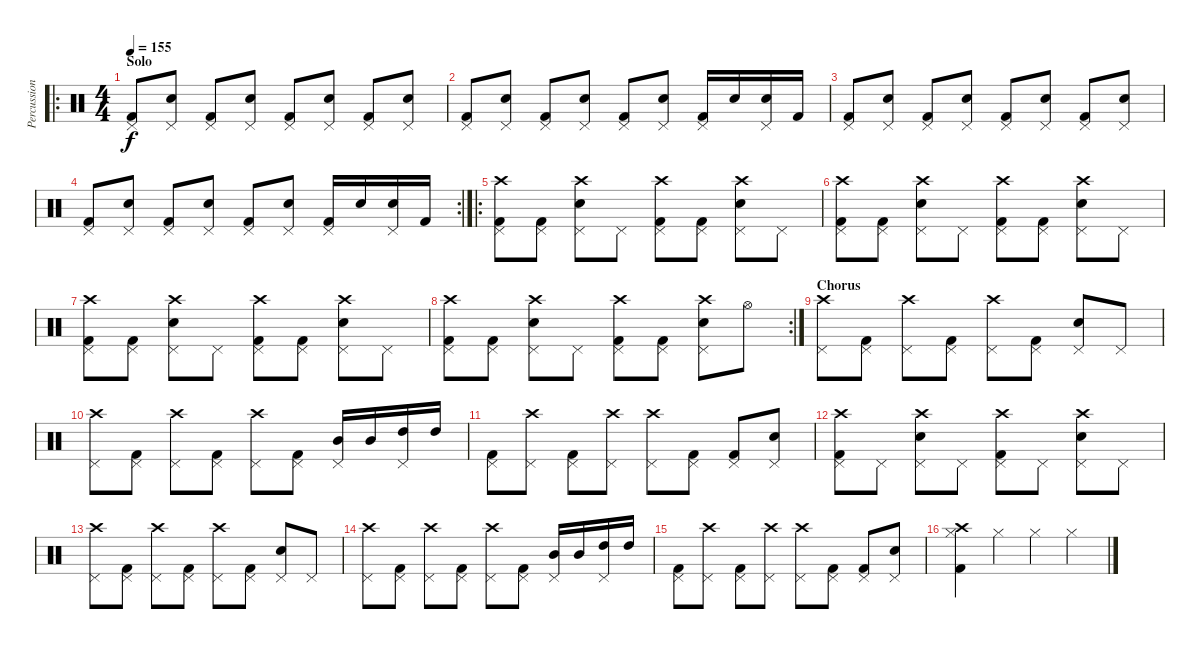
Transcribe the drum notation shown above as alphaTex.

\track ("Percussion" "Percussion") {instrument percussion}
\staff {score}
\articulation defaults
\ro
\ts (4 4)
\section ("" "Solo")
\tempo 155
\clef neutral
\ks c
("Pedal Hi-Hat (hit)" "Kick (hit) 2").8{dy f} ("Pedal Hi-Hat (hit)" "Electric Snare (hit)").8 ("Pedal Hi-Hat (hit)" "Kick (hit) 2").8 ("Pedal Hi-Hat (hit)" "Electric Snare (hit)").8 ("Pedal Hi-Hat (hit)" "Kick (hit) 2").8 ("Pedal Hi-Hat (hit)" "Electric Snare (hit)").8 ("Pedal Hi-Hat (hit)" "Kick (hit) 2").8 ("Pedal Hi-Hat (hit)" "Electric Snare (hit)").8 |
("Pedal Hi-Hat (hit)" "Kick (hit) 2").8 ("Pedal Hi-Hat (hit)" "Electric Snare (hit)").8 ("Pedal Hi-Hat (hit)" "Kick (hit) 2").8 ("Pedal Hi-Hat (hit)" "Electric Snare (hit)").8 ("Pedal Hi-Hat (hit)" "Kick (hit) 2").8 ("Pedal Hi-Hat (hit)" "Electric Snare (hit)").8 ("Pedal Hi-Hat (hit)" "Kick (hit) 2").16 "Electric Snare (hit)".16 ("Pedal Hi-Hat (hit)" "Electric Snare (hit)").16 "Kick (hit) 2".16 |
("Pedal Hi-Hat (hit)" "Kick (hit) 2").8 ("Pedal Hi-Hat (hit)" "Electric Snare (hit)").8 ("Pedal Hi-Hat (hit)" "Kick (hit) 2").8 ("Pedal Hi-Hat (hit)" "Electric Snare (hit)").8 ("Pedal Hi-Hat (hit)" "Kick (hit) 2").8 ("Pedal Hi-Hat (hit)" "Electric Snare (hit)").8 ("Pedal Hi-Hat (hit)" "Kick (hit) 2").8 ("Pedal Hi-Hat (hit)" "Electric Snare (hit)").8 |
\rc 2
("Pedal Hi-Hat (hit)" "Kick (hit) 2").8 ("Pedal Hi-Hat (hit)" "Electric Snare (hit)").8 ("Pedal Hi-Hat (hit)" "Kick (hit) 2").8 ("Pedal Hi-Hat (hit)" "Electric Snare (hit)").8 ("Pedal Hi-Hat (hit)" "Kick (hit) 2").8 ("Pedal Hi-Hat (hit)" "Electric Snare (hit)").8 ("Pedal Hi-Hat (hit)" "Kick (hit) 2").16 "Electric Snare (hit)".16 ("Pedal Hi-Hat (hit)" "Electric Snare (hit)").16 "Kick (hit) 2".16 |
\ro
("Pedal Hi-Hat (hit)" "Kick (hit) 2" "Crash high (hit)").8 ("Pedal Hi-Hat (hit)" "Kick (hit) 2").8 ("Pedal Hi-Hat (hit)" "Electric Snare (hit)" "Crash high (hit)").8 "Pedal Hi-Hat (hit)".8 ("Pedal Hi-Hat (hit)" "Kick (hit) 2" "Crash high (hit)").8 ("Pedal Hi-Hat (hit)" "Kick (hit) 2").8 ("Pedal Hi-Hat (hit)" "Electric Snare (hit)" "Crash high (hit)").8 "Pedal Hi-Hat (hit)".8 |
("Pedal Hi-Hat (hit)" "Kick (hit) 2" "Crash high (hit)").8 ("Pedal Hi-Hat (hit)" "Kick (hit) 2").8 ("Pedal Hi-Hat (hit)" "Electric Snare (hit)" "Crash high (hit)").8 "Pedal Hi-Hat (hit)".8 ("Pedal Hi-Hat (hit)" "Kick (hit) 2" "Crash high (hit)").8 ("Pedal Hi-Hat (hit)" "Kick (hit) 2").8 ("Pedal Hi-Hat (hit)" "Electric Snare (hit)" "Crash high (hit)").8 "Pedal Hi-Hat (hit)".8 |
("Pedal Hi-Hat (hit)" "Kick (hit) 2" "Crash high (hit)").8 ("Pedal Hi-Hat (hit)" "Kick (hit) 2").8 ("Pedal Hi-Hat (hit)" "Electric Snare (hit)" "Crash high (hit)").8 "Pedal Hi-Hat (hit)".8 ("Pedal Hi-Hat (hit)" "Kick (hit) 2" "Crash high (hit)").8 ("Pedal Hi-Hat (hit)" "Kick (hit) 2").8 ("Pedal Hi-Hat (hit)" "Electric Snare (hit)" "Crash high (hit)").8 "Pedal Hi-Hat (hit)".8 |
\rc 2
("Pedal Hi-Hat (hit)" "Kick (hit) 2" "Crash high (hit)").8 ("Pedal Hi-Hat (hit)" "Kick (hit) 2").8 ("Pedal Hi-Hat (hit)" "Electric Snare (hit)" "Crash high (hit)").8 "Pedal Hi-Hat (hit)".8 ("Pedal Hi-Hat (hit)" "Kick (hit) 2" "Crash high (hit)").8 ("Pedal Hi-Hat (hit)" "Kick (hit) 2").8 ("Pedal Hi-Hat (hit)" "Electric Snare (hit)" "Crash high (hit)").8 "Hi-Hat (open)".8 |
\section ("" "Chorus")
("Pedal Hi-Hat (hit)" "Crash high (hit)").8 ("Pedal Hi-Hat (hit)" "Kick (hit) 2").8 ("Pedal Hi-Hat (hit)" "Crash high (hit)").8 ("Pedal Hi-Hat (hit)" "Kick (hit) 2").8 ("Pedal Hi-Hat (hit)" "Crash high (hit)").8 ("Pedal Hi-Hat (hit)" "Kick (hit) 2").8 ("Pedal Hi-Hat (hit)" "Electric Snare (hit)").8 "Pedal Hi-Hat (hit)".8 |
("Pedal Hi-Hat (hit)" "Crash high (hit)").8 ("Pedal Hi-Hat (hit)" "Kick (hit) 2").8 ("Pedal Hi-Hat (hit)" "Crash high (hit)").8 ("Pedal Hi-Hat (hit)" "Kick (hit) 2").8 ("Pedal Hi-Hat (hit)" "Crash high (hit)").8 ("Pedal Hi-Hat (hit)" "Kick (hit) 2").8 ("Pedal Hi-Hat (hit)" "Mid Tom (hit)").16 "Mid Tom (hit)".16 ("Pedal Hi-Hat (hit)" "High Tom (hit)").16 "High Tom (hit)".16 |
("Pedal Hi-Hat (hit)" "Kick (hit) 2").8 ("Pedal Hi-Hat (hit)" "Crash high (hit)").8 ("Pedal Hi-Hat (hit)" "Kick (hit) 2").8 ("Pedal Hi-Hat (hit)" "Crash high (hit)").8 ("Pedal Hi-Hat (hit)" "Crash high (hit)").8 ("Pedal Hi-Hat (hit)" "Kick (hit) 2").8 ("Pedal Hi-Hat (hit)" "Kick (hit) 2").8 ("Pedal Hi-Hat (hit)" "Electric Snare (hit)").8 |
("Pedal Hi-Hat (hit)" "Kick (hit) 2" "Crash high (hit)").8 "Pedal Hi-Hat (hit)".8 ("Pedal Hi-Hat (hit)" "Electric Snare (hit)" "Crash high (hit)").8 "Pedal Hi-Hat (hit)".8 ("Pedal Hi-Hat (hit)" "Kick (hit) 2" "Crash high (hit)").8 "Pedal Hi-Hat (hit)".8 ("Pedal Hi-Hat (hit)" "Electric Snare (hit)" "Crash high (hit)").8 "Pedal Hi-Hat (hit)".8 |
("Pedal Hi-Hat (hit)" "Crash high (hit)").8 ("Pedal Hi-Hat (hit)" "Kick (hit) 2").8 ("Pedal Hi-Hat (hit)" "Crash high (hit)").8 ("Pedal Hi-Hat (hit)" "Kick (hit) 2").8 ("Pedal Hi-Hat (hit)" "Crash high (hit)").8 ("Pedal Hi-Hat (hit)" "Kick (hit) 2").8 ("Pedal Hi-Hat (hit)" "Electric Snare (hit)").8 "Pedal Hi-Hat (hit)".8 |
("Pedal Hi-Hat (hit)" "Crash high (hit)").8 ("Pedal Hi-Hat (hit)" "Kick (hit) 2").8 ("Pedal Hi-Hat (hit)" "Crash high (hit)").8 ("Pedal Hi-Hat (hit)" "Kick (hit) 2").8 ("Pedal Hi-Hat (hit)" "Crash high (hit)").8 ("Pedal Hi-Hat (hit)" "Kick (hit) 2").8 ("Pedal Hi-Hat (hit)" "Mid Tom (hit)").16 "Mid Tom (hit)".16 ("Pedal Hi-Hat (hit)" "High Tom (hit)").16 "High Tom (hit)".16 |
("Pedal Hi-Hat (hit)" "Kick (hit) 2").8 ("Pedal Hi-Hat (hit)" "Crash high (hit)").8 ("Pedal Hi-Hat (hit)" "Kick (hit) 2").8 ("Pedal Hi-Hat (hit)" "Crash high (hit)").8 ("Pedal Hi-Hat (hit)" "Crash high (hit)").8 ("Pedal Hi-Hat (hit)" "Kick (hit) 2").8 ("Pedal Hi-Hat (hit)" "Kick (hit) 2").8 ("Pedal Hi-Hat (hit)" "Electric Snare (hit)").8 |
("Hi-Hat (closed)" "Crash high (hit)" "Kick (hit) 2").4 "Hi-Hat (closed)".4 "Hi-Hat (closed)".4 "Hi-Hat (closed)".4
